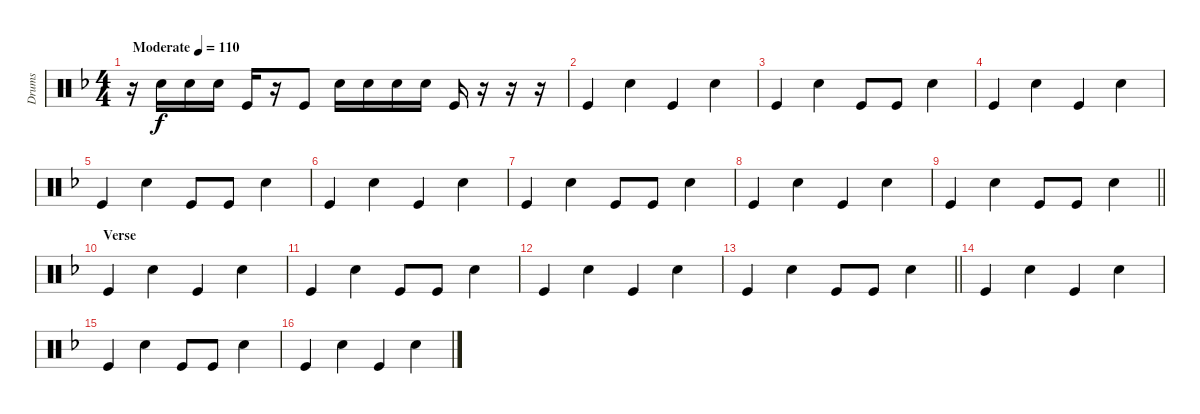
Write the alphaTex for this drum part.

\track ("Drums" "Drums") {instrument percussion}
\staff {score}
\articulation defaults
\ts (4 4)
\tempo (110 "Moderate")
\clef neutral
\ks dminor
r.16{dy f} "Snare (hit) 2".16 "Snare (hit) 2".16 "Snare (hit) 2".16 "Kick (hit)".16 r.16 "Kick (hit)".8 "Snare (hit) 2".16 "Snare (hit) 2".16 "Snare (hit) 2".16 "Snare (hit) 2".16 "Kick (hit)".16 r.16 r.16 r.16 |
"Kick (hit)".4 "Snare (hit) 2".4 "Kick (hit)".4 "Snare (hit) 2".4 |
"Kick (hit)".4 "Snare (hit) 2".4 "Kick (hit)".8 "Kick (hit)".8 "Snare (hit) 2".4 |
"Kick (hit)".4 "Snare (hit) 2".4 "Kick (hit)".4 "Snare (hit) 2".4 |
"Kick (hit)".4 "Snare (hit) 2".4 "Kick (hit)".8 "Kick (hit)".8 "Snare (hit) 2".4 |
"Kick (hit)".4 "Snare (hit) 2".4 "Kick (hit)".4 "Snare (hit) 2".4 |
"Kick (hit)".4 "Snare (hit) 2".4 "Kick (hit)".8 "Kick (hit)".8 "Snare (hit) 2".4 |
"Kick (hit)".4 "Snare (hit) 2".4 "Kick (hit)".4 "Snare (hit) 2".4 |
\barLineRight lightlight "Kick (hit)".4 "Snare (hit) 2".4 "Kick (hit)".8 "Kick (hit)".8 "Snare (hit) 2".4
|
\section ("" "Verse")
"Kick (hit)".4 "Snare (hit) 2".4 "Kick (hit)".4 "Snare (hit) 2".4 |
"Kick (hit)".4 "Snare (hit) 2".4 "Kick (hit)".8 "Kick (hit)".8 "Snare (hit) 2".4 |
"Kick (hit)".4 "Snare (hit) 2".4 "Kick (hit)".4 "Snare (hit) 2".4 |
\barLineRight lightlight "Kick (hit)".4 "Snare (hit) 2".4 "Kick (hit)".8 "Kick (hit)".8 "Snare (hit) 2".4
|
"Kick (hit)".4 "Snare (hit) 2".4 "Kick (hit)".4 "Snare (hit) 2".4 |
"Kick (hit)".4 "Snare (hit) 2".4 "Kick (hit)".8 "Kick (hit)".8 "Snare (hit) 2".4 |
"Kick (hit)".4 "Snare (hit) 2".4 "Kick (hit)".4 "Snare (hit) 2".4
